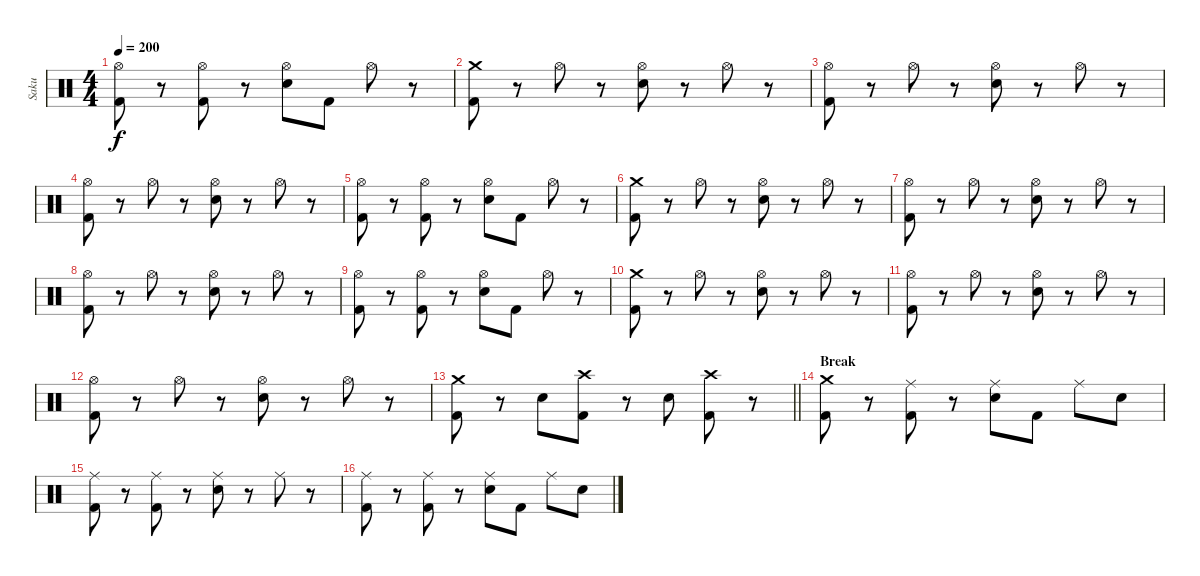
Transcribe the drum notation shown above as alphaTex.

\track ("Saku" "Saku") {instrument percussion}
\staff {score}
\articulation defaults
\ts (4 4)
\tempo 200
\clef neutral
\ks c
("Hi-Hat (open)" "Kick (hit) 2").8{dy f} r.8 ("Hi-Hat (open)" "Kick (hit) 2").8 r.8 ("Hi-Hat (open)" "Electric Snare (hit)").8 "Kick (hit) 2".8 "Hi-Hat (open)".8 r.8 |
("Crash medium (hit)" "Kick (hit) 2").8 r.8 "Hi-Hat (open)".8 r.8 ("Hi-Hat (open)" "Electric Snare (hit)").8 r.8 "Hi-Hat (open)".8 r.8 |
("Hi-Hat (open)" "Kick (hit) 2").8 r.8 "Hi-Hat (open)".8 r.8 ("Hi-Hat (open)" "Electric Snare (hit)").8 r.8 "Hi-Hat (open)".8 r.8 |
("Hi-Hat (open)" "Kick (hit) 2").8 r.8 "Hi-Hat (open)".8 r.8 ("Hi-Hat (open)" "Electric Snare (hit)").8 r.8 "Hi-Hat (open)".8 r.8 |
("Hi-Hat (open)" "Kick (hit) 2").8 r.8 ("Hi-Hat (open)" "Kick (hit) 2").8 r.8 ("Hi-Hat (open)" "Electric Snare (hit)").8 "Kick (hit) 2".8 "Hi-Hat (open)".8 r.8 |
("Crash medium (hit)" "Kick (hit) 2").8 r.8 "Hi-Hat (open)".8 r.8 ("Hi-Hat (open)" "Electric Snare (hit)").8 r.8 "Hi-Hat (open)".8 r.8 |
("Hi-Hat (open)" "Kick (hit) 2").8 r.8 "Hi-Hat (open)".8 r.8 ("Hi-Hat (open)" "Electric Snare (hit)").8 r.8 "Hi-Hat (open)".8 r.8 |
("Hi-Hat (open)" "Kick (hit) 2").8 r.8 "Hi-Hat (open)".8 r.8 ("Hi-Hat (open)" "Electric Snare (hit)").8 r.8 "Hi-Hat (open)".8 r.8 |
("Hi-Hat (open)" "Kick (hit) 2").8 r.8 ("Hi-Hat (open)" "Kick (hit) 2").8 r.8 ("Hi-Hat (open)" "Electric Snare (hit)").8 "Kick (hit) 2".8 "Hi-Hat (open)".8 r.8 |
("Crash medium (hit)" "Kick (hit) 2").8 r.8 "Hi-Hat (open)".8 r.8 ("Hi-Hat (open)" "Electric Snare (hit)").8 r.8 "Hi-Hat (open)".8 r.8 |
("Hi-Hat (open)" "Kick (hit) 2").8 r.8 "Hi-Hat (open)".8 r.8 ("Hi-Hat (open)" "Electric Snare (hit)").8 r.8 "Hi-Hat (open)".8 r.8 |
("Hi-Hat (open)" "Kick (hit) 2").8 r.8 "Hi-Hat (open)".8 r.8 ("Hi-Hat (open)" "Electric Snare (hit)").8 r.8 "Hi-Hat (open)".8 r.8 |
\barLineRight lightlight
("Crash medium (hit)" "Kick (hit) 2").8 r.8 "Electric Snare (hit)".8 ("Crash high (hit)" "Kick (hit) 2").8 r.8 "Electric Snare (hit)".8 ("Crash high (hit)" "Kick (hit) 2").8 r.8 |
\section ("" "Break")
("Crash medium (hit)" "Kick (hit) 2").8 r.8 ("Ride (middle)" "Kick (hit) 2").8 r.8 ("Ride (middle)" "Electric Snare (hit)").8 "Kick (hit) 2".8 "Ride (middle)".8 "Electric Snare (hit)".8 |
("Ride (middle)" "Kick (hit) 2").8 r.8 ("Ride (middle)" "Kick (hit) 2").8 r.8 ("Ride (middle)" "Electric Snare (hit)").8 r.8 "Ride (middle)".8 r.8 |
("Ride (middle)" "Kick (hit) 2").8 r.8 ("Ride (middle)" "Kick (hit) 2").8 r.8 ("Ride (middle)" "Electric Snare (hit)").8 "Kick (hit) 2".8 "Ride (middle)".8 "Electric Snare (hit)".8
